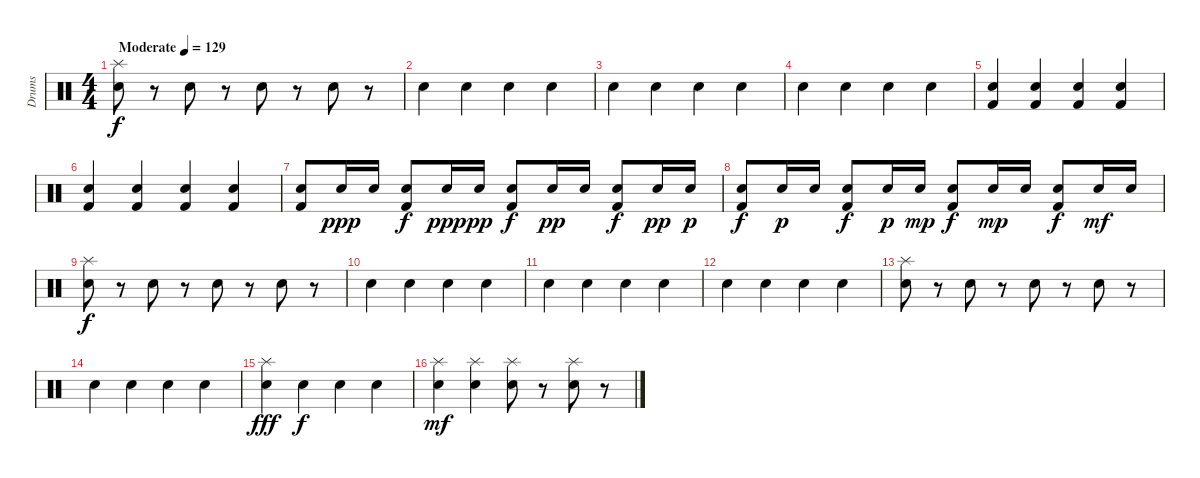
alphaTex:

\track ("Drums" "Drums") {instrument percussion}
\staff {score}
\articulation defaults
\ts (4 4)
\tempo (129 "Moderate")
\clef neutral
\ks c
("Splash (hit)" "Hand Clap (hit)").8{dy f} r.8 "Hand Clap (hit)".8 r.8 "Hand Clap (hit)".8 r.8 "Hand Clap (hit)".8 r.8 |
"Hand Clap (hit)".4 "Hand Clap (hit)".4 "Hand Clap (hit)".4 "Hand Clap (hit)".4 |
"Hand Clap (hit)".4 "Hand Clap (hit)".4 "Hand Clap (hit)".4 "Hand Clap (hit)".4 |
"Hand Clap (hit)".4 "Hand Clap (hit)".4 "Hand Clap (hit)".4 "Hand Clap (hit)".4 |
("Hand Clap (hit)" "Kick (hit) 2").4 ("Hand Clap (hit)" "Kick (hit) 2").4 ("Hand Clap (hit)" "Kick (hit) 2").4 ("Hand Clap (hit)" "Kick (hit) 2").4 |
("Hand Clap (hit)" "Kick (hit) 2").4 ("Hand Clap (hit)" "Kick (hit) 2").4 ("Hand Clap (hit)" "Kick (hit) 2").4 ("Hand Clap (hit)" "Kick (hit) 2").4 |
("Hand Clap (hit)" "Kick (hit) 2").8 "Hand Clap (hit)".16{dy ppp} "Hand Clap (hit)".16 ("Hand Clap (hit)" "Kick (hit) 2").8{dy f} "Hand Clap (hit)".16{dy ppp} "Hand Clap (hit)".16{dy pp} ("Hand Clap (hit)" "Kick (hit) 2").8{dy f} "Hand Clap (hit)".16{dy pp} "Hand Clap (hit)".16 ("Hand Clap (hit)" "Kick (hit) 2").8{dy f} "Hand Clap (hit)".16{dy pp} "Hand Clap (hit)".16{dy p} |
("Hand Clap (hit)" "Kick (hit) 2").8{dy f} "Hand Clap (hit)".16{dy p} "Hand Clap (hit)".16 ("Hand Clap (hit)" "Kick (hit) 2").8{dy f} "Hand Clap (hit)".16{dy p} "Hand Clap (hit)".16{dy mp} ("Hand Clap (hit)" "Kick (hit) 2").8{dy f} "Hand Clap (hit)".16{dy mp} "Hand Clap (hit)".16 ("Hand Clap (hit)" "Kick (hit) 2").8{dy f} "Hand Clap (hit)".16{dy mf} "Hand Clap (hit)".16 |
("Splash (hit)" "Hand Clap (hit)").8{dy f} r.8 "Hand Clap (hit)".8 r.8 "Hand Clap (hit)".8 r.8 "Hand Clap (hit)".8 r.8 |
"Hand Clap (hit)".4 "Hand Clap (hit)".4 "Hand Clap (hit)".4 "Hand Clap (hit)".4 |
"Hand Clap (hit)".4 "Hand Clap (hit)".4 "Hand Clap (hit)".4 "Hand Clap (hit)".4 |
"Hand Clap (hit)".4 "Hand Clap (hit)".4 "Hand Clap (hit)".4 "Hand Clap (hit)".4 |
("Splash (hit)" "Hand Clap (hit)").8 r.8 "Hand Clap (hit)".8 r.8 "Hand Clap (hit)".8 r.8 "Hand Clap (hit)".8 r.8 |
"Hand Clap (hit)".4 "Hand Clap (hit)".4 "Hand Clap (hit)".4 "Hand Clap (hit)".4 |
("Splash (hit)" "Hand Clap (hit)").4{dy fff} "Hand Clap (hit)".4{dy f} "Hand Clap (hit)".4 "Hand Clap (hit)".4 |
("Splash (hit)" "Hand Clap (hit)").4{dy mf} ("Splash (hit)" "Hand Clap (hit)").4 ("Splash (hit)" "Hand Clap (hit)").8 r.8 ("Splash (hit)" "Hand Clap (hit)").8 r.8
